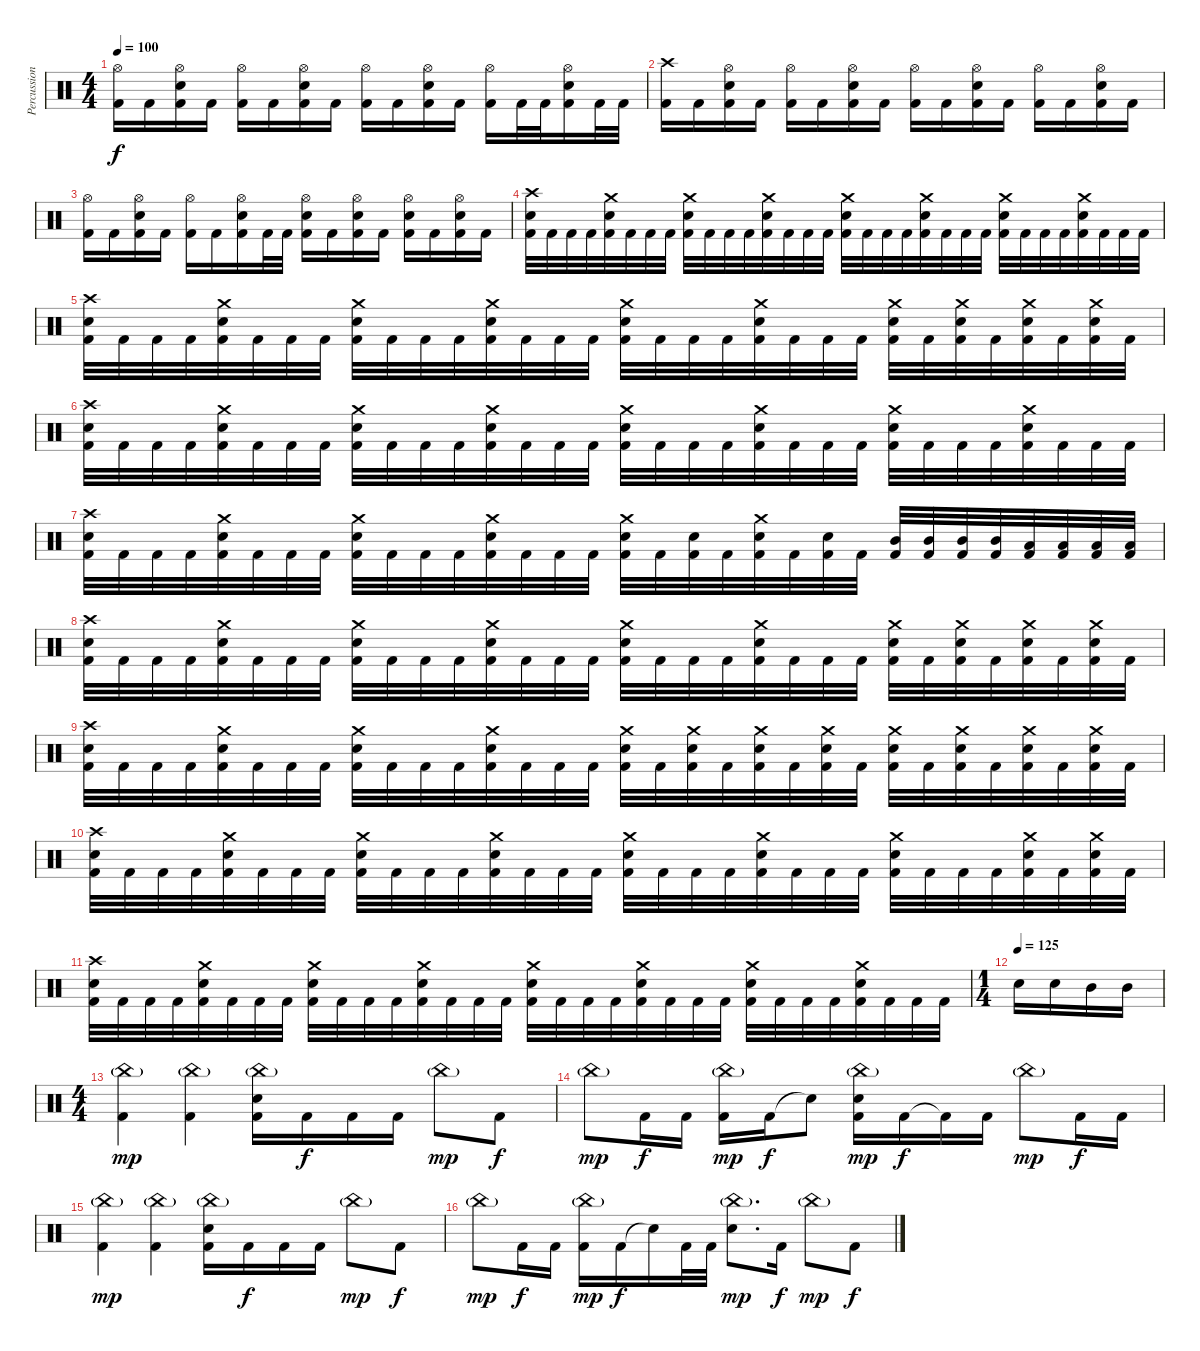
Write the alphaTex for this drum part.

\track ("Percussion" "Percussion") {instrument percussion}
\staff {score}
\articulation defaults
\ts (4 4)
\tempo 100
\clef neutral
\ks c
("Hi-Hat (open)" "Kick (hit) 2").16{dy f} "Kick (hit) 2".16 ("Hi-Hat (open)" "Electric Snare (hit)" "Kick (hit) 2").16 "Kick (hit) 2".16 ("Hi-Hat (open)" "Kick (hit) 2").16 "Kick (hit) 2".16 ("Hi-Hat (open)" "Electric Snare (hit)" "Kick (hit) 2").16 "Kick (hit) 2".16 ("Hi-Hat (open)" "Kick (hit) 2").16 "Kick (hit) 2".16 ("Hi-Hat (open)" "Electric Snare (hit)" "Kick (hit) 2").16 "Kick (hit) 2".16 ("Hi-Hat (open)" "Kick (hit) 2").16 "Kick (hit) 2".32 "Kick (hit) 2".32 ("Hi-Hat (open)" "Electric Snare (hit)" "Kick (hit) 2").16 "Kick (hit) 2".32 "Kick (hit) 2".32 |
("Crash high (hit)" "Kick (hit) 2").16 "Kick (hit) 2".16 ("Hi-Hat (open)" "Electric Snare (hit)" "Kick (hit) 2").16 "Kick (hit) 2".16 ("Hi-Hat (open)" "Kick (hit) 2").16 "Kick (hit) 2".16 ("Hi-Hat (open)" "Electric Snare (hit)" "Kick (hit) 2").16 "Kick (hit) 2".16 ("Hi-Hat (open)" "Kick (hit) 2").16 "Kick (hit) 2".16 ("Hi-Hat (open)" "Electric Snare (hit)" "Kick (hit) 2").16 "Kick (hit) 2".16 ("Hi-Hat (open)" "Kick (hit) 2").16 "Kick (hit) 2".16 ("Hi-Hat (open)" "Electric Snare (hit)" "Kick (hit) 2").16 "Kick (hit) 2".16 |
("Hi-Hat (open)" "Kick (hit) 2").16 "Kick (hit) 2".16 ("Hi-Hat (open)" "Electric Snare (hit)" "Kick (hit) 2").16 "Kick (hit) 2".16 ("Hi-Hat (open)" "Kick (hit) 2").16 "Kick (hit) 2".16 ("Hi-Hat (open)" "Electric Snare (hit)" "Kick (hit) 2").16 "Kick (hit) 2".32 "Kick (hit) 2".32 ("Hi-Hat (open)" "Electric Snare (hit)" "Kick (hit) 2").16 "Kick (hit) 2".16 ("Hi-Hat (open)" "Electric Snare (hit)" "Kick (hit) 2").16 "Kick (hit) 2".16 ("Hi-Hat (open)" "Electric Snare (hit)" "Kick (hit) 2").16 "Kick (hit) 2".16 ("Hi-Hat (open)" "Electric Snare (hit)" "Kick (hit) 2").16 "Kick (hit) 2".16 |
("Crash high (hit)" "Electric Snare (hit)" "Kick (hit) 2").32 "Kick (hit) 2".32 "Kick (hit) 2".32 "Kick (hit) 2".32 ("Crash medium (hit)" "Electric Snare (hit)" "Kick (hit) 2").32 "Kick (hit) 2".32 "Kick (hit) 2".32 "Kick (hit) 2".32 ("Crash medium (hit)" "Electric Snare (hit)" "Kick (hit) 2").32 "Kick (hit) 2".32 "Kick (hit) 2".32 "Kick (hit) 2".32 ("Crash medium (hit)" "Electric Snare (hit)" "Kick (hit) 2").32 "Kick (hit) 2".32 "Kick (hit) 2".32 "Kick (hit) 2".32 ("Crash medium (hit)" "Electric Snare (hit)" "Kick (hit) 2").32 "Kick (hit) 2".32 "Kick (hit) 2".32 "Kick (hit) 2".32 ("Crash medium (hit)" "Electric Snare (hit)" "Kick (hit) 2").32 "Kick (hit) 2".32 "Kick (hit) 2".32 "Kick (hit) 2".32 ("Crash medium (hit)" "Electric Snare (hit)" "Kick (hit) 2").32 "Kick (hit) 2".32 "Kick (hit) 2".32 "Kick (hit) 2".32 ("Crash medium (hit)" "Electric Snare (hit)" "Kick (hit) 2").32 "Kick (hit) 2".32 "Kick (hit) 2".32 "Kick (hit) 2".32 |
("Crash high (hit)" "Electric Snare (hit)" "Kick (hit) 2").32 "Kick (hit) 2".32 "Kick (hit) 2".32 "Kick (hit) 2".32 ("Crash medium (hit)" "Electric Snare (hit)" "Kick (hit) 2").32 "Kick (hit) 2".32 "Kick (hit) 2".32 "Kick (hit) 2".32 ("Crash medium (hit)" "Electric Snare (hit)" "Kick (hit) 2").32 "Kick (hit) 2".32 "Kick (hit) 2".32 "Kick (hit) 2".32 ("Crash medium (hit)" "Electric Snare (hit)" "Kick (hit) 2").32 "Kick (hit) 2".32 "Kick (hit) 2".32 "Kick (hit) 2".32 ("Crash medium (hit)" "Electric Snare (hit)" "Kick (hit) 2").32 "Kick (hit) 2".32 "Kick (hit) 2".32 "Kick (hit) 2".32 ("Crash medium (hit)" "Electric Snare (hit)" "Kick (hit) 2").32 "Kick (hit) 2".32 "Kick (hit) 2".32 "Kick (hit) 2".32 ("Crash medium (hit)" "Electric Snare (hit)" "Kick (hit) 2").32 "Kick (hit) 2".32 ("Crash medium (hit)" "Electric Snare (hit)" "Kick (hit) 2").32 "Kick (hit) 2".32 ("Crash medium (hit)" "Electric Snare (hit)" "Kick (hit) 2").32 "Kick (hit) 2".32 ("Crash medium (hit)" "Electric Snare (hit)" "Kick (hit) 2").32 "Kick (hit) 2".32 |
("Crash high (hit)" "Electric Snare (hit)" "Kick (hit) 2").32 "Kick (hit) 2".32 "Kick (hit) 2".32 "Kick (hit) 2".32 ("Crash medium (hit)" "Electric Snare (hit)" "Kick (hit) 2").32 "Kick (hit) 2".32 "Kick (hit) 2".32 "Kick (hit) 2".32 ("Crash medium (hit)" "Electric Snare (hit)" "Kick (hit) 2").32 "Kick (hit) 2".32 "Kick (hit) 2".32 "Kick (hit) 2".32 ("Crash medium (hit)" "Electric Snare (hit)" "Kick (hit) 2").32 "Kick (hit) 2".32 "Kick (hit) 2".32 "Kick (hit) 2".32 ("Crash medium (hit)" "Electric Snare (hit)" "Kick (hit) 2").32 "Kick (hit) 2".32 "Kick (hit) 2".32 "Kick (hit) 2".32 ("Crash medium (hit)" "Electric Snare (hit)" "Kick (hit) 2").32 "Kick (hit) 2".32 "Kick (hit) 2".32 "Kick (hit) 2".32 ("Crash medium (hit)" "Electric Snare (hit)" "Kick (hit) 2").32 "Kick (hit) 2".32 "Kick (hit) 2".32 "Kick (hit) 2".32 ("Crash medium (hit)" "Electric Snare (hit)" "Kick (hit) 2").32 "Kick (hit) 2".32 "Kick (hit) 2".32 "Kick (hit) 2".32 |
("Crash high (hit)" "Electric Snare (hit)" "Kick (hit) 2").32 "Kick (hit) 2".32 "Kick (hit) 2".32 "Kick (hit) 2".32 ("Crash medium (hit)" "Electric Snare (hit)" "Kick (hit) 2").32 "Kick (hit) 2".32 "Kick (hit) 2".32 "Kick (hit) 2".32 ("Crash medium (hit)" "Electric Snare (hit)" "Kick (hit) 2").32 "Kick (hit) 2".32 "Kick (hit) 2".32 "Kick (hit) 2".32 ("Crash medium (hit)" "Electric Snare (hit)" "Kick (hit) 2").32 "Kick (hit) 2".32 "Kick (hit) 2".32 "Kick (hit) 2".32 ("Crash medium (hit)" "Electric Snare (hit)" "Kick (hit) 2").32 "Kick (hit) 2".32 ("Electric Snare (hit)" "Kick (hit) 2").32 "Kick (hit) 2".32 ("Crash medium (hit)" "Electric Snare (hit)" "Kick (hit) 2").32 "Kick (hit) 2".32 ("Electric Snare (hit)" "Kick (hit) 2").32 "Kick (hit) 2".32 ("Mid Tom (hit)" "Kick (hit) 2").32 ("Mid Tom (hit)" "Kick (hit) 2").32 ("Mid Tom (hit)" "Kick (hit) 2").32 ("Mid Tom (hit)" "Kick (hit) 2").32 ("Low Tom (hit)" "Kick (hit) 2").32 ("Low Tom (hit)" "Kick (hit) 2").32 ("Low Tom (hit)" "Kick (hit) 2").32 ("Low Tom (hit)" "Kick (hit) 2").32 |
("Crash high (hit)" "Electric Snare (hit)" "Kick (hit) 2").32 "Kick (hit) 2".32 "Kick (hit) 2".32 "Kick (hit) 2".32 ("Crash medium (hit)" "Electric Snare (hit)" "Kick (hit) 2").32 "Kick (hit) 2".32 "Kick (hit) 2".32 "Kick (hit) 2".32 ("Crash medium (hit)" "Electric Snare (hit)" "Kick (hit) 2").32 "Kick (hit) 2".32 "Kick (hit) 2".32 "Kick (hit) 2".32 ("Crash medium (hit)" "Electric Snare (hit)" "Kick (hit) 2").32 "Kick (hit) 2".32 "Kick (hit) 2".32 "Kick (hit) 2".32 ("Crash medium (hit)" "Electric Snare (hit)" "Kick (hit) 2").32 "Kick (hit) 2".32 "Kick (hit) 2".32 "Kick (hit) 2".32 ("Crash medium (hit)" "Electric Snare (hit)" "Kick (hit) 2").32 "Kick (hit) 2".32 "Kick (hit) 2".32 "Kick (hit) 2".32 ("Crash medium (hit)" "Electric Snare (hit)" "Kick (hit) 2").32 "Kick (hit) 2".32 ("Crash medium (hit)" "Electric Snare (hit)" "Kick (hit) 2").32 "Kick (hit) 2".32 ("Crash medium (hit)" "Electric Snare (hit)" "Kick (hit) 2").32 "Kick (hit) 2".32 ("Crash medium (hit)" "Electric Snare (hit)" "Kick (hit) 2").32 "Kick (hit) 2".32 |
("Crash high (hit)" "Electric Snare (hit)" "Kick (hit) 2").32 "Kick (hit) 2".32 "Kick (hit) 2".32 "Kick (hit) 2".32 ("Crash medium (hit)" "Electric Snare (hit)" "Kick (hit) 2").32 "Kick (hit) 2".32 "Kick (hit) 2".32 "Kick (hit) 2".32 ("Crash medium (hit)" "Electric Snare (hit)" "Kick (hit) 2").32 "Kick (hit) 2".32 "Kick (hit) 2".32 "Kick (hit) 2".32 ("Crash medium (hit)" "Electric Snare (hit)" "Kick (hit) 2").32 "Kick (hit) 2".32 "Kick (hit) 2".32 "Kick (hit) 2".32 ("Crash medium (hit)" "Electric Snare (hit)" "Kick (hit) 2").32 "Kick (hit) 2".32 ("Crash medium (hit)" "Electric Snare (hit)" "Kick (hit) 2").32 "Kick (hit) 2".32 ("Crash medium (hit)" "Electric Snare (hit)" "Kick (hit) 2").32 "Kick (hit) 2".32 ("Crash medium (hit)" "Electric Snare (hit)" "Kick (hit) 2").32 "Kick (hit) 2".32 ("Crash medium (hit)" "Electric Snare (hit)" "Kick (hit) 2").32 "Kick (hit) 2".32 ("Crash medium (hit)" "Electric Snare (hit)" "Kick (hit) 2").32 "Kick (hit) 2".32 ("Crash medium (hit)" "Electric Snare (hit)" "Kick (hit) 2").32 "Kick (hit) 2".32 ("Crash medium (hit)" "Electric Snare (hit)" "Kick (hit) 2").32 "Kick (hit) 2".32 |
("Crash high (hit)" "Electric Snare (hit)" "Kick (hit) 2").32 "Kick (hit) 2".32 "Kick (hit) 2".32 "Kick (hit) 2".32 ("Crash medium (hit)" "Electric Snare (hit)" "Kick (hit) 2").32 "Kick (hit) 2".32 "Kick (hit) 2".32 "Kick (hit) 2".32 ("Crash medium (hit)" "Electric Snare (hit)" "Kick (hit) 2").32 "Kick (hit) 2".32 "Kick (hit) 2".32 "Kick (hit) 2".32 ("Crash medium (hit)" "Electric Snare (hit)" "Kick (hit) 2").32 "Kick (hit) 2".32 "Kick (hit) 2".32 "Kick (hit) 2".32 ("Crash medium (hit)" "Electric Snare (hit)" "Kick (hit) 2").32 "Kick (hit) 2".32 "Kick (hit) 2".32 "Kick (hit) 2".32 ("Crash medium (hit)" "Electric Snare (hit)" "Kick (hit) 2").32 "Kick (hit) 2".32 "Kick (hit) 2".32 "Kick (hit) 2".32 ("Crash medium (hit)" "Electric Snare (hit)" "Kick (hit) 2").32 "Kick (hit) 2".32 "Kick (hit) 2".32 "Kick (hit) 2".32 ("Crash medium (hit)" "Electric Snare (hit)" "Kick (hit) 2").32 "Kick (hit) 2".32 ("Crash medium (hit)" "Electric Snare (hit)" "Kick (hit) 2").32 "Kick (hit) 2".32 |
("Crash high (hit)" "Electric Snare (hit)" "Kick (hit) 2").32 "Kick (hit) 2".32 "Kick (hit) 2".32 "Kick (hit) 2".32 ("Crash medium (hit)" "Electric Snare (hit)" "Kick (hit) 2").32 "Kick (hit) 2".32 "Kick (hit) 2".32 "Kick (hit) 2".32 ("Crash medium (hit)" "Electric Snare (hit)" "Kick (hit) 2").32 "Kick (hit) 2".32 "Kick (hit) 2".32 "Kick (hit) 2".32 ("Crash medium (hit)" "Electric Snare (hit)" "Kick (hit) 2").32 "Kick (hit) 2".32 "Kick (hit) 2".32 "Kick (hit) 2".32 ("Crash medium (hit)" "Electric Snare (hit)" "Kick (hit) 2").32 "Kick (hit) 2".32 "Kick (hit) 2".32 "Kick (hit) 2".32 ("Crash medium (hit)" "Electric Snare (hit)" "Kick (hit) 2").32 "Kick (hit) 2".32 "Kick (hit) 2".32 "Kick (hit) 2".32 ("Crash medium (hit)" "Electric Snare (hit)" "Kick (hit) 2").32 "Kick (hit) 2".32 "Kick (hit) 2".32 "Kick (hit) 2".32 ("Crash medium (hit)" "Electric Snare (hit)" "Kick (hit) 2").32 "Kick (hit) 2".32 "Kick (hit) 2".32 "Kick (hit) 2".32 |
\ts (1 4)
\tempo (125)
"Electric Snare (hit)".16 "Electric Snare (hit)".16 "Mid Tom (hit)".16 "Mid Tom (hit)".16 |
\ts (4 4)
("China (hit)"{g} "Kick (hit) 2").4{dy mp} ("China (hit)"{g} "Kick (hit) 2").4 ("China (hit)"{g} "Electric Snare (hit)" "Kick (hit) 2").16 "Kick (hit) 2".16{dy f} "Kick (hit) 2".16 "Kick (hit) 2".16 "China (hit)"{g}.8{dy mp} "Kick (hit) 2".8{dy f} |
"China (hit)"{g}.8{dy mp} "Kick (hit) 2".16{dy f} "Kick (hit) 2".16 ("China (hit)"{g} "Kick (hit) 2").16{dy mp} "Kick (hit) 2".16{dy f} "Snare (hit)"{t}.8 ("China (hit)"{g} "Electric Snare (hit)" "Kick (hit) 2").16{dy mp} "Kick (hit) 2".16{dy f} "Kick (hit) 2"{t}.16 "Kick (hit) 2".16 "China (hit)"{g}.8{dy mp} "Kick (hit) 2".16{dy f} "Kick (hit) 2".16 |
("China (hit)"{g} "Kick (hit) 2").4{dy mp} ("China (hit)"{g} "Kick (hit) 2").4 ("China (hit)"{g} "Electric Snare (hit)" "Kick (hit) 2").16 "Kick (hit) 2".16{dy f} "Kick (hit) 2".16 "Kick (hit) 2".16 "China (hit)"{g}.8{dy mp} "Kick (hit) 2".8{dy f} |
"China (hit)"{g}.8{dy mp} "Kick (hit) 2".16{dy f} "Kick (hit) 2".16 ("China (hit)"{g} "Kick (hit) 2").16{dy mp} "Kick (hit) 2".16{dy f} "Snare (hit)"{t}.16 "Kick (hit) 2".32 "Kick (hit) 2".32 ("China (hit)"{g} "Electric Snare (hit)").8{d dy mp} "Kick (hit) 2".16{dy f} "China (hit)"{g}.8{dy mp} "Kick (hit) 2".8{dy f}
